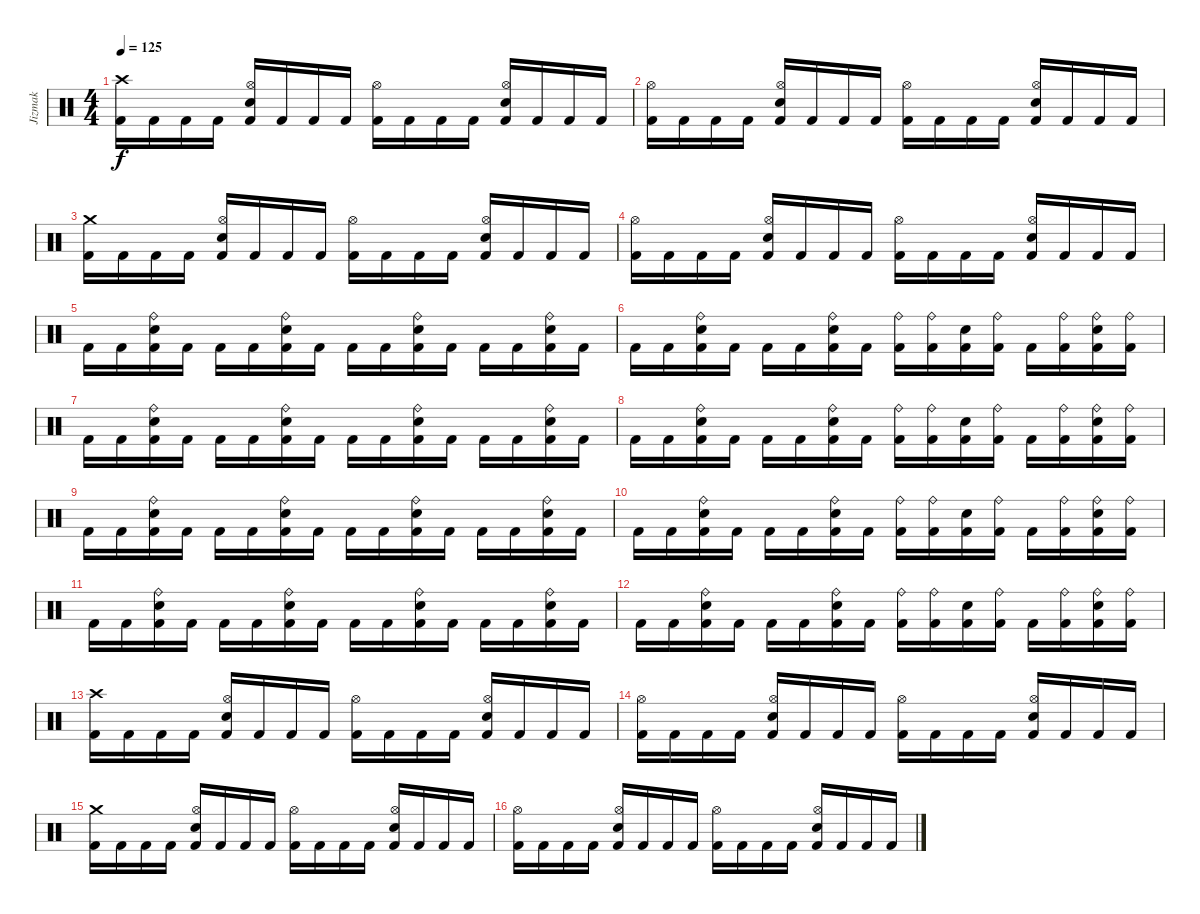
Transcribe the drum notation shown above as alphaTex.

\track ("Jizmak" "Jizmak") {instrument percussion}
\staff {score}
\articulation defaults
\ts (4 4)
\tempo 125
\clef neutral
\ks c
("Crash high (hit)" "Kick (hit) 2").16{dy f} "Kick (hit) 2".16 "Kick (hit) 2".16 "Kick (hit) 2".16 ("Hi-Hat (open)" "Snare (hit) 2" "Kick (hit) 2").16 "Kick (hit) 2".16 "Kick (hit) 2".16 "Kick (hit) 2".16 ("Hi-Hat (open)" "Kick (hit) 2").16 "Kick (hit) 2".16 "Kick (hit) 2".16 "Kick (hit) 2".16 ("Hi-Hat (open)" "Snare (hit) 2" "Kick (hit) 2").16 "Kick (hit) 2".16 "Kick (hit) 2".16 "Kick (hit) 2".16 |
("Hi-Hat (open)" "Kick (hit) 2").16 "Kick (hit) 2".16 "Kick (hit) 2".16 "Kick (hit) 2".16 ("Hi-Hat (open)" "Snare (hit) 2" "Kick (hit) 2").16 "Kick (hit) 2".16 "Kick (hit) 2".16 "Kick (hit) 2".16 ("Hi-Hat (open)" "Kick (hit) 2").16 "Kick (hit) 2".16 "Kick (hit) 2".16 "Kick (hit) 2".16 ("Hi-Hat (open)" "Snare (hit) 2" "Kick (hit) 2").16 "Kick (hit) 2".16 "Kick (hit) 2".16 "Kick (hit) 2".16 |
("Crash medium (hit)" "Kick (hit) 2").16 "Kick (hit) 2".16 "Kick (hit) 2".16 "Kick (hit) 2".16 ("Hi-Hat (open)" "Snare (hit) 2" "Kick (hit) 2").16 "Kick (hit) 2".16 "Kick (hit) 2".16 "Kick (hit) 2".16 ("Hi-Hat (open)" "Kick (hit) 2").16 "Kick (hit) 2".16 "Kick (hit) 2".16 "Kick (hit) 2".16 ("Hi-Hat (open)" "Snare (hit) 2" "Kick (hit) 2").16 "Kick (hit) 2".16 "Kick (hit) 2".16 "Kick (hit) 2".16 |
("Hi-Hat (open)" "Kick (hit) 2").16 "Kick (hit) 2".16 "Kick (hit) 2".16 "Kick (hit) 2".16 ("Hi-Hat (open)" "Snare (hit) 2" "Kick (hit) 2").16 "Kick (hit) 2".16 "Kick (hit) 2".16 "Kick (hit) 2".16 ("Hi-Hat (open)" "Kick (hit) 2").16 "Kick (hit) 2".16 "Kick (hit) 2".16 "Kick (hit) 2".16 ("Hi-Hat (open)" "Snare (hit) 2" "Kick (hit) 2").16 "Kick (hit) 2".16 "Kick (hit) 2".16 "Kick (hit) 2".16 |
"Kick (hit) 2".16 "Kick (hit) 2".16 ("Ride (bell)" "Snare (hit) 2" "Kick (hit) 2").16 "Kick (hit) 2".16 "Kick (hit) 2".16 "Kick (hit) 2".16 ("Ride (bell)" "Snare (hit) 2" "Kick (hit) 2").16 "Kick (hit) 2".16 "Kick (hit) 2".16 "Kick (hit) 2".16 ("Ride (bell)" "Snare (hit) 2" "Kick (hit) 2").16 "Kick (hit) 2".16 "Kick (hit) 2".16 "Kick (hit) 2".16 ("Ride (bell)" "Snare (hit) 2" "Kick (hit) 2").16 "Kick (hit) 2".16 |
"Kick (hit) 2".16 "Kick (hit) 2".16 ("Ride (bell)" "Snare (hit) 2" "Kick (hit) 2").16 "Kick (hit) 2".16 "Kick (hit) 2".16 "Kick (hit) 2".16 ("Ride (bell)" "Snare (hit) 2" "Kick (hit) 2").16 "Kick (hit) 2".16 ("Ride (bell)" "Kick (hit) 2").16 ("Ride (bell)" "Kick (hit) 2").16 ("Snare (hit) 2" "Kick (hit) 2").16 ("Ride (bell)" "Kick (hit) 2").16 "Kick (hit) 2".16 ("Ride (bell)" "Kick (hit) 2").16 ("Ride (bell)" "Snare (hit) 2" "Kick (hit) 2").16 ("Ride (bell)" "Kick (hit) 2").16 |
"Kick (hit) 2".16 "Kick (hit) 2".16 ("Ride (bell)" "Snare (hit) 2" "Kick (hit) 2").16 "Kick (hit) 2".16 "Kick (hit) 2".16 "Kick (hit) 2".16 ("Ride (bell)" "Snare (hit) 2" "Kick (hit) 2").16 "Kick (hit) 2".16 "Kick (hit) 2".16 "Kick (hit) 2".16 ("Ride (bell)" "Snare (hit) 2" "Kick (hit) 2").16 "Kick (hit) 2".16 "Kick (hit) 2".16 "Kick (hit) 2".16 ("Ride (bell)" "Snare (hit) 2" "Kick (hit) 2").16 "Kick (hit) 2".16 |
"Kick (hit) 2".16 "Kick (hit) 2".16 ("Ride (bell)" "Snare (hit) 2" "Kick (hit) 2").16 "Kick (hit) 2".16 "Kick (hit) 2".16 "Kick (hit) 2".16 ("Ride (bell)" "Snare (hit) 2" "Kick (hit) 2").16 "Kick (hit) 2".16 ("Ride (bell)" "Kick (hit) 2").16 ("Ride (bell)" "Kick (hit) 2").16 ("Snare (hit) 2" "Kick (hit) 2").16 ("Ride (bell)" "Kick (hit) 2").16 "Kick (hit) 2".16 ("Ride (bell)" "Kick (hit) 2").16 ("Ride (bell)" "Snare (hit) 2" "Kick (hit) 2").16 ("Ride (bell)" "Kick (hit) 2").16 |
"Kick (hit) 2".16 "Kick (hit) 2".16 ("Ride (bell)" "Snare (hit) 2" "Kick (hit) 2").16 "Kick (hit) 2".16 "Kick (hit) 2".16 "Kick (hit) 2".16 ("Ride (bell)" "Snare (hit) 2" "Kick (hit) 2").16 "Kick (hit) 2".16 "Kick (hit) 2".16 "Kick (hit) 2".16 ("Ride (bell)" "Snare (hit) 2" "Kick (hit) 2").16 "Kick (hit) 2".16 "Kick (hit) 2".16 "Kick (hit) 2".16 ("Ride (bell)" "Snare (hit) 2" "Kick (hit) 2").16 "Kick (hit) 2".16 |
"Kick (hit) 2".16 "Kick (hit) 2".16 ("Ride (bell)" "Snare (hit) 2" "Kick (hit) 2").16 "Kick (hit) 2".16 "Kick (hit) 2".16 "Kick (hit) 2".16 ("Ride (bell)" "Snare (hit) 2" "Kick (hit) 2").16 "Kick (hit) 2".16 ("Ride (bell)" "Kick (hit) 2").16 ("Ride (bell)" "Kick (hit) 2").16 ("Snare (hit) 2" "Kick (hit) 2").16 ("Ride (bell)" "Kick (hit) 2").16 "Kick (hit) 2".16 ("Ride (bell)" "Kick (hit) 2").16 ("Ride (bell)" "Snare (hit) 2" "Kick (hit) 2").16 ("Ride (bell)" "Kick (hit) 2").16 |
"Kick (hit) 2".16 "Kick (hit) 2".16 ("Ride (bell)" "Snare (hit) 2" "Kick (hit) 2").16 "Kick (hit) 2".16 "Kick (hit) 2".16 "Kick (hit) 2".16 ("Ride (bell)" "Snare (hit) 2" "Kick (hit) 2").16 "Kick (hit) 2".16 "Kick (hit) 2".16 "Kick (hit) 2".16 ("Ride (bell)" "Snare (hit) 2" "Kick (hit) 2").16 "Kick (hit) 2".16 "Kick (hit) 2".16 "Kick (hit) 2".16 ("Ride (bell)" "Snare (hit) 2" "Kick (hit) 2").16 "Kick (hit) 2".16 |
"Kick (hit) 2".16 "Kick (hit) 2".16 ("Ride (bell)" "Snare (hit) 2" "Kick (hit) 2").16 "Kick (hit) 2".16 "Kick (hit) 2".16 "Kick (hit) 2".16 ("Ride (bell)" "Snare (hit) 2" "Kick (hit) 2").16 "Kick (hit) 2".16 ("Ride (bell)" "Kick (hit) 2").16 ("Ride (bell)" "Kick (hit) 2").16 ("Snare (hit) 2" "Kick (hit) 2").16 ("Ride (bell)" "Kick (hit) 2").16 "Kick (hit) 2".16 ("Ride (bell)" "Kick (hit) 2").16 ("Ride (bell)" "Snare (hit) 2" "Kick (hit) 2").16 ("Ride (bell)" "Kick (hit) 2").16 |
("Crash high (hit)" "Kick (hit) 2").16 "Kick (hit) 2".16 "Kick (hit) 2".16 "Kick (hit) 2".16 ("Hi-Hat (open)" "Snare (hit) 2" "Kick (hit) 2").16 "Kick (hit) 2".16 "Kick (hit) 2".16 "Kick (hit) 2".16 ("Hi-Hat (open)" "Kick (hit) 2").16 "Kick (hit) 2".16 "Kick (hit) 2".16 "Kick (hit) 2".16 ("Hi-Hat (open)" "Snare (hit) 2" "Kick (hit) 2").16 "Kick (hit) 2".16 "Kick (hit) 2".16 "Kick (hit) 2".16 |
("Hi-Hat (open)" "Kick (hit) 2").16 "Kick (hit) 2".16 "Kick (hit) 2".16 "Kick (hit) 2".16 ("Hi-Hat (open)" "Snare (hit) 2" "Kick (hit) 2").16 "Kick (hit) 2".16 "Kick (hit) 2".16 "Kick (hit) 2".16 ("Hi-Hat (open)" "Kick (hit) 2").16 "Kick (hit) 2".16 "Kick (hit) 2".16 "Kick (hit) 2".16 ("Hi-Hat (open)" "Snare (hit) 2" "Kick (hit) 2").16 "Kick (hit) 2".16 "Kick (hit) 2".16 "Kick (hit) 2".16 |
("Crash medium (hit)" "Kick (hit) 2").16 "Kick (hit) 2".16 "Kick (hit) 2".16 "Kick (hit) 2".16 ("Hi-Hat (open)" "Snare (hit) 2" "Kick (hit) 2").16 "Kick (hit) 2".16 "Kick (hit) 2".16 "Kick (hit) 2".16 ("Hi-Hat (open)" "Kick (hit) 2").16 "Kick (hit) 2".16 "Kick (hit) 2".16 "Kick (hit) 2".16 ("Hi-Hat (open)" "Snare (hit) 2" "Kick (hit) 2").16 "Kick (hit) 2".16 "Kick (hit) 2".16 "Kick (hit) 2".16 |
("Hi-Hat (open)" "Kick (hit) 2").16 "Kick (hit) 2".16 "Kick (hit) 2".16 "Kick (hit) 2".16 ("Hi-Hat (open)" "Snare (hit) 2" "Kick (hit) 2").16 "Kick (hit) 2".16 "Kick (hit) 2".16 "Kick (hit) 2".16 ("Hi-Hat (open)" "Kick (hit) 2").16 "Kick (hit) 2".16 "Kick (hit) 2".16 "Kick (hit) 2".16 ("Hi-Hat (open)" "Snare (hit) 2" "Kick (hit) 2").16 "Kick (hit) 2".16 "Kick (hit) 2".16 "Kick (hit) 2".16
